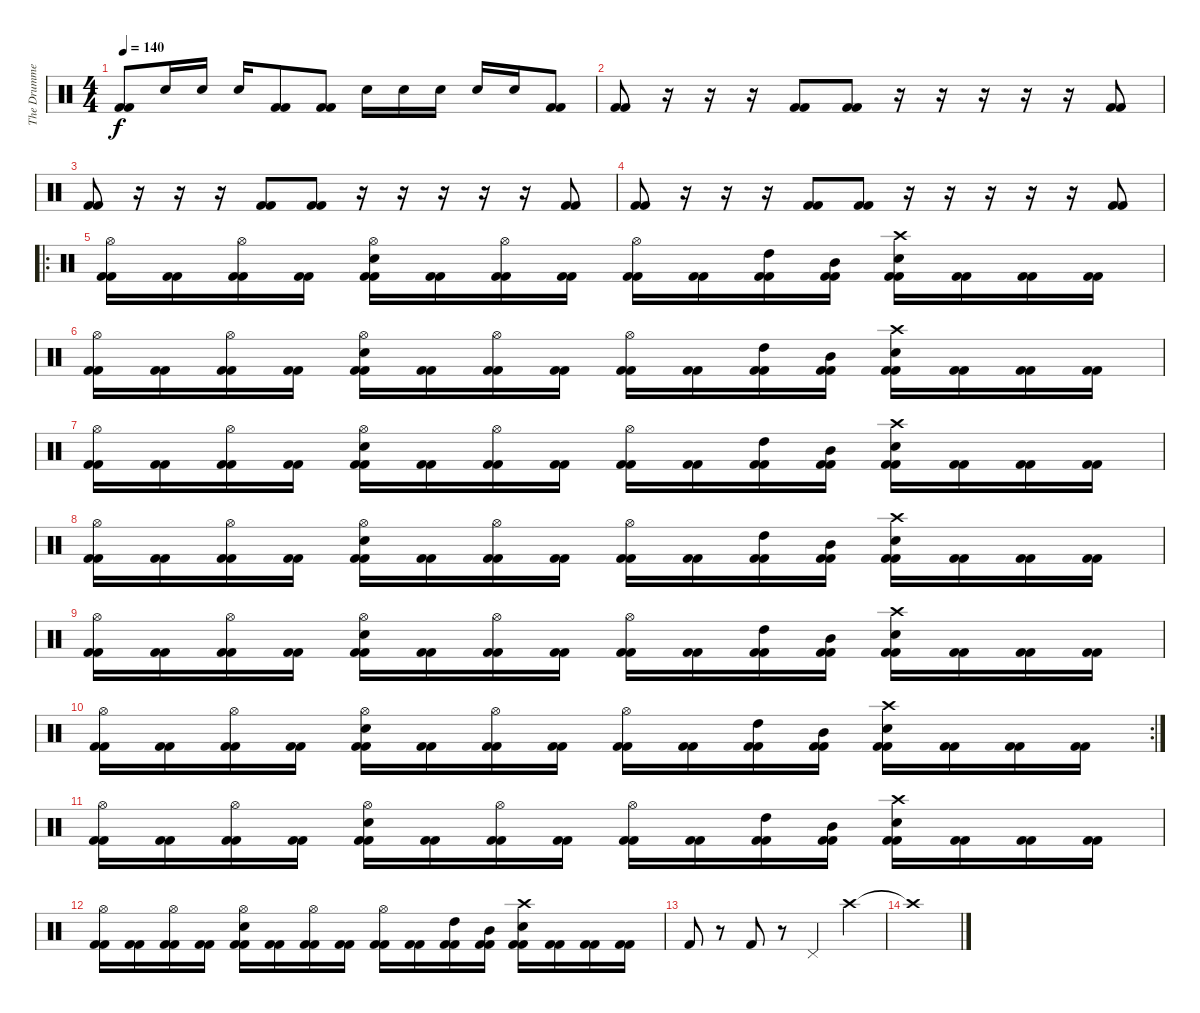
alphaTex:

\track ("The Drummer" "The Drumme") {instrument percussion}
\staff {score}
\articulation defaults
\ts (4 4)
\tempo 140
\clef neutral
\ks c
("Kick (hit) 2" "Kick (hit) 2").8{dy f} "Electric Snare (hit)".16 "Electric Snare (hit)".16 "Electric Snare (hit)".16 ("Kick (hit) 2" "Kick (hit) 2").8 ("Kick (hit) 2" "Kick (hit) 2").8 "Electric Snare (hit)".16 "Electric Snare (hit)".16 "Electric Snare (hit)".16 "Electric Snare (hit)".16 "Electric Snare (hit)".16 ("Kick (hit) 2" "Kick (hit) 2").8 |
("Kick (hit) 2" "Kick (hit) 2").8 r.16 r.16 r.16 ("Kick (hit) 2" "Kick (hit) 2").8 ("Kick (hit) 2" "Kick (hit) 2").8 r.16 r.16 r.16 r.16 r.16 ("Kick (hit) 2" "Kick (hit) 2").8 |
("Kick (hit) 2" "Kick (hit) 2").8 r.16 r.16 r.16 ("Kick (hit) 2" "Kick (hit) 2").8 ("Kick (hit) 2" "Kick (hit) 2").8 r.16 r.16 r.16 r.16 r.16 ("Kick (hit) 2" "Kick (hit) 2").8 |
("Kick (hit) 2" "Kick (hit) 2").8 r.16 r.16 r.16 ("Kick (hit) 2" "Kick (hit) 2").8 ("Kick (hit) 2" "Kick (hit) 2").8 r.16 r.16 r.16 r.16 r.16 ("Kick (hit) 2" "Kick (hit) 2").8 |
\ro
("Hi-Hat (open)" "Kick (hit) 2" "Kick (hit) 2").16 ("Kick (hit) 2" "Kick (hit) 2").16 ("Hi-Hat (open)" "Kick (hit) 2" "Kick (hit) 2").16 ("Kick (hit) 2" "Kick (hit) 2").16 ("Hi-Hat (open)" "Electric Snare (hit)" "Kick (hit) 2" "Kick (hit) 2").16 ("Kick (hit) 2" "Kick (hit) 2").16 ("Hi-Hat (open)" "Kick (hit) 2" "Kick (hit) 2").16 ("Kick (hit) 2" "Kick (hit) 2").16 ("Hi-Hat (open)" "Kick (hit) 2" "Kick (hit) 2").16 ("Kick (hit) 2" "Kick (hit) 2").16 ("High Tom (hit)" "Kick (hit) 2" "Kick (hit) 2").16 ("Mid Tom (hit)" "Kick (hit) 2" "Kick (hit) 2").16 ("Crash high (hit)" "Electric Snare (hit)" "Kick (hit) 2" "Kick (hit) 2").16 ("Kick (hit) 2" "Kick (hit) 2").16 ("Kick (hit) 2" "Kick (hit) 2").16 ("Kick (hit) 2" "Kick (hit) 2").16 |
("Hi-Hat (open)" "Kick (hit) 2" "Kick (hit) 2").16 ("Kick (hit) 2" "Kick (hit) 2").16 ("Hi-Hat (open)" "Kick (hit) 2" "Kick (hit) 2").16 ("Kick (hit) 2" "Kick (hit) 2").16 ("Hi-Hat (open)" "Electric Snare (hit)" "Kick (hit) 2" "Kick (hit) 2").16 ("Kick (hit) 2" "Kick (hit) 2").16 ("Hi-Hat (open)" "Kick (hit) 2" "Kick (hit) 2").16 ("Kick (hit) 2" "Kick (hit) 2").16 ("Hi-Hat (open)" "Kick (hit) 2" "Kick (hit) 2").16 ("Kick (hit) 2" "Kick (hit) 2").16 ("High Tom (hit)" "Kick (hit) 2" "Kick (hit) 2").16 ("Mid Tom (hit)" "Kick (hit) 2" "Kick (hit) 2").16 ("Crash high (hit)" "Electric Snare (hit)" "Kick (hit) 2" "Kick (hit) 2").16 ("Kick (hit) 2" "Kick (hit) 2").16 ("Kick (hit) 2" "Kick (hit) 2").16 ("Kick (hit) 2" "Kick (hit) 2").16 |
("Hi-Hat (open)" "Kick (hit) 2" "Kick (hit) 2").16 ("Kick (hit) 2" "Kick (hit) 2").16 ("Hi-Hat (open)" "Kick (hit) 2" "Kick (hit) 2").16 ("Kick (hit) 2" "Kick (hit) 2").16 ("Hi-Hat (open)" "Electric Snare (hit)" "Kick (hit) 2" "Kick (hit) 2").16 ("Kick (hit) 2" "Kick (hit) 2").16 ("Hi-Hat (open)" "Kick (hit) 2" "Kick (hit) 2").16 ("Kick (hit) 2" "Kick (hit) 2").16 ("Hi-Hat (open)" "Kick (hit) 2" "Kick (hit) 2").16 ("Kick (hit) 2" "Kick (hit) 2").16 ("High Tom (hit)" "Kick (hit) 2" "Kick (hit) 2").16 ("Mid Tom (hit)" "Kick (hit) 2" "Kick (hit) 2").16 ("Crash high (hit)" "Electric Snare (hit)" "Kick (hit) 2" "Kick (hit) 2").16 ("Kick (hit) 2" "Kick (hit) 2").16 ("Kick (hit) 2" "Kick (hit) 2").16 ("Kick (hit) 2" "Kick (hit) 2").16 |
("Hi-Hat (open)" "Kick (hit) 2" "Kick (hit) 2").16 ("Kick (hit) 2" "Kick (hit) 2").16 ("Hi-Hat (open)" "Kick (hit) 2" "Kick (hit) 2").16 ("Kick (hit) 2" "Kick (hit) 2").16 ("Hi-Hat (open)" "Electric Snare (hit)" "Kick (hit) 2" "Kick (hit) 2").16 ("Kick (hit) 2" "Kick (hit) 2").16 ("Hi-Hat (open)" "Kick (hit) 2" "Kick (hit) 2").16 ("Kick (hit) 2" "Kick (hit) 2").16 ("Hi-Hat (open)" "Kick (hit) 2" "Kick (hit) 2").16 ("Kick (hit) 2" "Kick (hit) 2").16 ("High Tom (hit)" "Kick (hit) 2" "Kick (hit) 2").16 ("Mid Tom (hit)" "Kick (hit) 2" "Kick (hit) 2").16 ("Crash high (hit)" "Electric Snare (hit)" "Kick (hit) 2" "Kick (hit) 2").16 ("Kick (hit) 2" "Kick (hit) 2").16 ("Kick (hit) 2" "Kick (hit) 2").16 ("Kick (hit) 2" "Kick (hit) 2").16 |
("Hi-Hat (open)" "Kick (hit) 2" "Kick (hit) 2").16 ("Kick (hit) 2" "Kick (hit) 2").16 ("Hi-Hat (open)" "Kick (hit) 2" "Kick (hit) 2").16 ("Kick (hit) 2" "Kick (hit) 2").16 ("Hi-Hat (open)" "Electric Snare (hit)" "Kick (hit) 2" "Kick (hit) 2").16 ("Kick (hit) 2" "Kick (hit) 2").16 ("Hi-Hat (open)" "Kick (hit) 2" "Kick (hit) 2").16 ("Kick (hit) 2" "Kick (hit) 2").16 ("Hi-Hat (open)" "Kick (hit) 2" "Kick (hit) 2").16 ("Kick (hit) 2" "Kick (hit) 2").16 ("High Tom (hit)" "Kick (hit) 2" "Kick (hit) 2").16 ("Mid Tom (hit)" "Kick (hit) 2" "Kick (hit) 2").16 ("Crash high (hit)" "Electric Snare (hit)" "Kick (hit) 2" "Kick (hit) 2").16 ("Kick (hit) 2" "Kick (hit) 2").16 ("Kick (hit) 2" "Kick (hit) 2").16 ("Kick (hit) 2" "Kick (hit) 2").16 |
\rc 2
("Hi-Hat (open)" "Kick (hit) 2" "Kick (hit) 2").16 ("Kick (hit) 2" "Kick (hit) 2").16 ("Hi-Hat (open)" "Kick (hit) 2" "Kick (hit) 2").16 ("Kick (hit) 2" "Kick (hit) 2").16 ("Hi-Hat (open)" "Electric Snare (hit)" "Kick (hit) 2" "Kick (hit) 2").16 ("Kick (hit) 2" "Kick (hit) 2").16 ("Hi-Hat (open)" "Kick (hit) 2" "Kick (hit) 2").16 ("Kick (hit) 2" "Kick (hit) 2").16 ("Hi-Hat (open)" "Kick (hit) 2" "Kick (hit) 2").16 ("Kick (hit) 2" "Kick (hit) 2").16 ("High Tom (hit)" "Kick (hit) 2" "Kick (hit) 2").16 ("Mid Tom (hit)" "Kick (hit) 2" "Kick (hit) 2").16 ("Crash high (hit)" "Electric Snare (hit)" "Kick (hit) 2" "Kick (hit) 2").16 ("Kick (hit) 2" "Kick (hit) 2").16 ("Kick (hit) 2" "Kick (hit) 2").16 ("Kick (hit) 2" "Kick (hit) 2").16 |
("Hi-Hat (open)" "Kick (hit) 2" "Kick (hit) 2").16 ("Kick (hit) 2" "Kick (hit) 2").16 ("Hi-Hat (open)" "Kick (hit) 2" "Kick (hit) 2").16 ("Kick (hit) 2" "Kick (hit) 2").16 ("Hi-Hat (open)" "Electric Snare (hit)" "Kick (hit) 2" "Kick (hit) 2").16 ("Kick (hit) 2" "Kick (hit) 2").16 ("Hi-Hat (open)" "Kick (hit) 2" "Kick (hit) 2").16 ("Kick (hit) 2" "Kick (hit) 2").16 ("Hi-Hat (open)" "Kick (hit) 2" "Kick (hit) 2").16 ("Kick (hit) 2" "Kick (hit) 2").16 ("High Tom (hit)" "Kick (hit) 2" "Kick (hit) 2").16 ("Mid Tom (hit)" "Kick (hit) 2" "Kick (hit) 2").16 ("Crash high (hit)" "Electric Snare (hit)" "Kick (hit) 2" "Kick (hit) 2").16 ("Kick (hit) 2" "Kick (hit) 2").16 ("Kick (hit) 2" "Kick (hit) 2").16 ("Kick (hit) 2" "Kick (hit) 2").16 |
("Hi-Hat (open)" "Kick (hit) 2" "Kick (hit) 2").16 ("Kick (hit) 2" "Kick (hit) 2").16 ("Hi-Hat (open)" "Kick (hit) 2" "Kick (hit) 2").16 ("Kick (hit) 2" "Kick (hit) 2").16 ("Hi-Hat (open)" "Electric Snare (hit)" "Kick (hit) 2" "Kick (hit) 2").16 ("Kick (hit) 2" "Kick (hit) 2").16 ("Hi-Hat (open)" "Kick (hit) 2" "Kick (hit) 2").16 ("Kick (hit) 2" "Kick (hit) 2").16 ("Hi-Hat (open)" "Kick (hit) 2" "Kick (hit) 2").16 ("Kick (hit) 2" "Kick (hit) 2").16 ("High Tom (hit)" "Kick (hit) 2" "Kick (hit) 2").16 ("Mid Tom (hit)" "Kick (hit) 2" "Kick (hit) 2").16 ("Crash high (hit)" "Electric Snare (hit)" "Kick (hit) 2" "Kick (hit) 2").16 ("Kick (hit) 2" "Kick (hit) 2").16 ("Kick (hit) 2" "Kick (hit) 2").16 ("Kick (hit) 2" "Kick (hit) 2").16 |
"Kick (hit) 2".8 r.8 "Kick (hit) 2".8 r.8 "Pedal Hi-Hat (hit)".4 "Crash high (hit)".4 |
"Crash high (hit)"{t}.1
